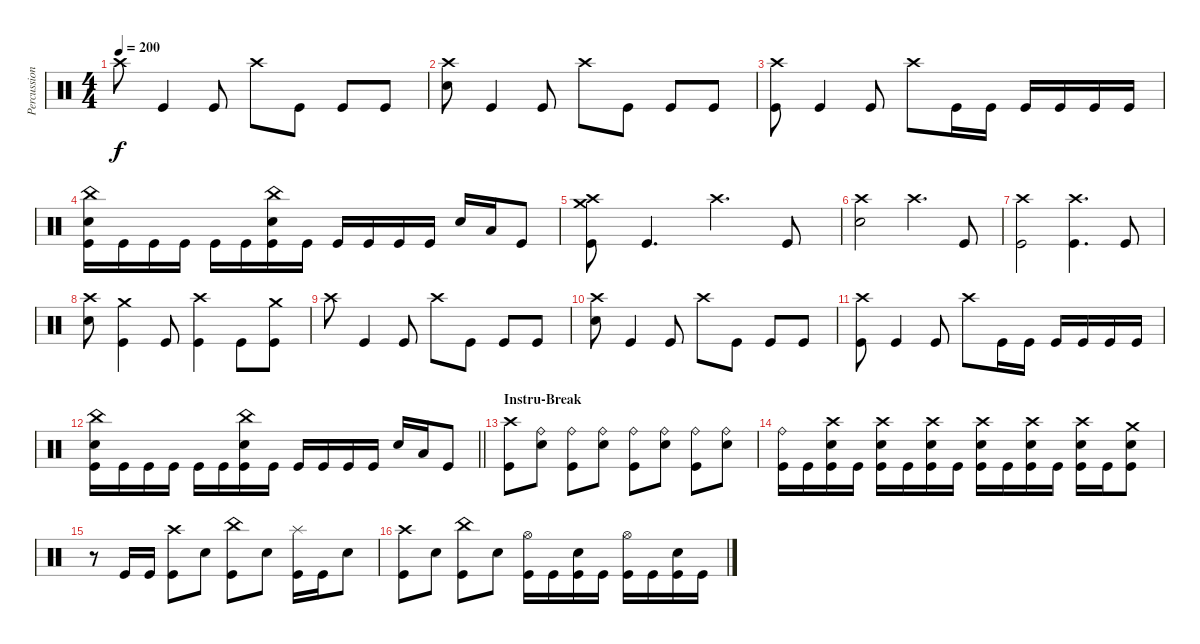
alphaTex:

\track ("Percussion" "Percussion") {instrument percussion}
\staff {score}
\articulation defaults
\ts (4 4)
\tempo 200
\clef neutral
\ks c "Crash high (hit)".8{dy f} "Kick (hit)".4 "Kick (hit)".8 "Crash high (hit)".8 "Kick (hit)".8 "Kick (hit)".8 "Kick (hit)".8
|
("Crash high (hit)" "Snare (hit) 2").8 "Kick (hit)".4 "Kick (hit)".8 "Crash high (hit)".8 "Kick (hit)".8 "Kick (hit)".8 "Kick (hit)".8 |
("Crash high (hit)" "Kick (hit)").8 "Kick (hit)".4 "Kick (hit)".8 "Crash high (hit)".8 "Kick (hit)".16 "Kick (hit)".16 "Kick (hit)".16 "Kick (hit)".16 "Kick (hit)".16 "Kick (hit)".16 |
("China (hit)" "Snare (hit) 2" "Kick (hit)").16 "Kick (hit)".16 "Kick (hit)".16 "Kick (hit)".16 "Kick (hit)".16 "Kick (hit)".16 ("China (hit)" "Snare (hit) 2" "Kick (hit)").16 "Kick (hit)".16 "Kick (hit)".16 "Kick (hit)".16 "Kick (hit)".16 "Kick (hit)".16 "Snare (hit) 2".16 "Low Tom (hit)".16 "Kick (hit)".8 |
("Crash high (hit)" "Crash medium (hit)" "Kick (hit)").8 "Kick (hit)".4{d} "Crash high (hit)".4{d} "Kick (hit)".8 |
("Crash high (hit)" "Snare (hit) 2").2 "Crash high (hit)".4{d} "Kick (hit)".8 |
("Crash high (hit)" "Kick (hit)").2 ("Crash high (hit)" "Kick (hit)").4{d} "Kick (hit)".8 |
("Crash high (hit)" "Snare (hit) 2").8 ("Crash medium (hit)" "Kick (hit)").4 "Kick (hit)".8 ("Crash high (hit)" "Kick (hit)").4 "Kick (hit)".8 ("Crash medium (hit)" "Kick (hit)").8 |
"Crash high (hit)".8 "Kick (hit)".4 "Kick (hit)".8 "Crash high (hit)".8 "Kick (hit)".8 "Kick (hit)".8 "Kick (hit)".8 |
("Crash high (hit)" "Snare (hit) 2").8 "Kick (hit)".4 "Kick (hit)".8 "Crash high (hit)".8 "Kick (hit)".8 "Kick (hit)".8 "Kick (hit)".8 |
("Crash high (hit)" "Kick (hit)").8 "Kick (hit)".4 "Kick (hit)".8 "Crash high (hit)".8 "Kick (hit)".16 "Kick (hit)".16 "Kick (hit)".16 "Kick (hit)".16 "Kick (hit)".16 "Kick (hit)".16 |
\barLineRight lightlight
("China (hit)" "Snare (hit) 2" "Kick (hit)").16 "Kick (hit)".16 "Kick (hit)".16 "Kick (hit)".16 "Kick (hit)".16 "Kick (hit)".16 ("China (hit)" "Snare (hit) 2" "Kick (hit)").16 "Kick (hit)".16 "Kick (hit)".16 "Kick (hit)".16 "Kick (hit)".16 "Kick (hit)".16 "Snare (hit) 2".16 "Low Tom (hit)".16 "Kick (hit)".8 |
\section ("" "Instru-Break")
("Crash high (hit)" "Kick (hit)").8 ("Ride (bell)" "Snare (hit) 2").8 ("Ride (bell)" "Kick (hit)").8 ("Ride (bell)" "Snare (hit) 2").8 ("Ride (bell)" "Kick (hit)").8 ("Ride (bell)" "Snare (hit) 2").8 ("Ride (bell)" "Kick (hit)").8 ("Ride (bell)" "Snare (hit) 2").8 |
("Ride (bell)" "Kick (hit)").16 "Kick (hit)".16 ("Crash high (hit)" "Snare (hit) 2" "Kick (hit)").16 "Kick (hit)".16 ("Crash high (hit)" "Snare (hit) 2" "Kick (hit)").16 "Kick (hit)".16 ("Crash high (hit)" "Snare (hit) 2" "Kick (hit)").16 "Kick (hit)".16 ("Crash high (hit)" "Snare (hit) 2" "Kick (hit)").16 "Kick (hit)".16 ("Crash high (hit)" "Snare (hit) 2" "Kick (hit)").16 "Kick (hit)".16 ("Crash high (hit)" "Snare (hit) 2" "Kick (hit)").16 "Kick (hit)".16 ("Crash medium (hit)" "Snare (hit) 2" "Kick (hit)").8 |
r.8 "Kick (hit)".16 "Kick (hit)".16 ("Crash high (hit)" "Kick (hit)").8 "Snare (hit) 2".8 ("China (hit)" "Kick (hit)").8 "Snare (hit) 2".8 ("Splash (hit)" "Kick (hit)").16 "Kick (hit)".16 "Snare (hit) 2".8 |
("Crash high (hit)" "Kick (hit)").8 "Snare (hit) 2".8 ("China (hit)" "Kick (hit)").8 "Snare (hit) 2".8 ("Hi-Hat (open)" "Kick (hit)").16 "Kick (hit)".16 ("Snare (hit) 2" "Kick (hit)").16 "Kick (hit)".16 ("Hi-Hat (open)" "Kick (hit)").16 "Kick (hit)".16 ("Snare (hit) 2" "Kick (hit)").16 "Kick (hit)".16
